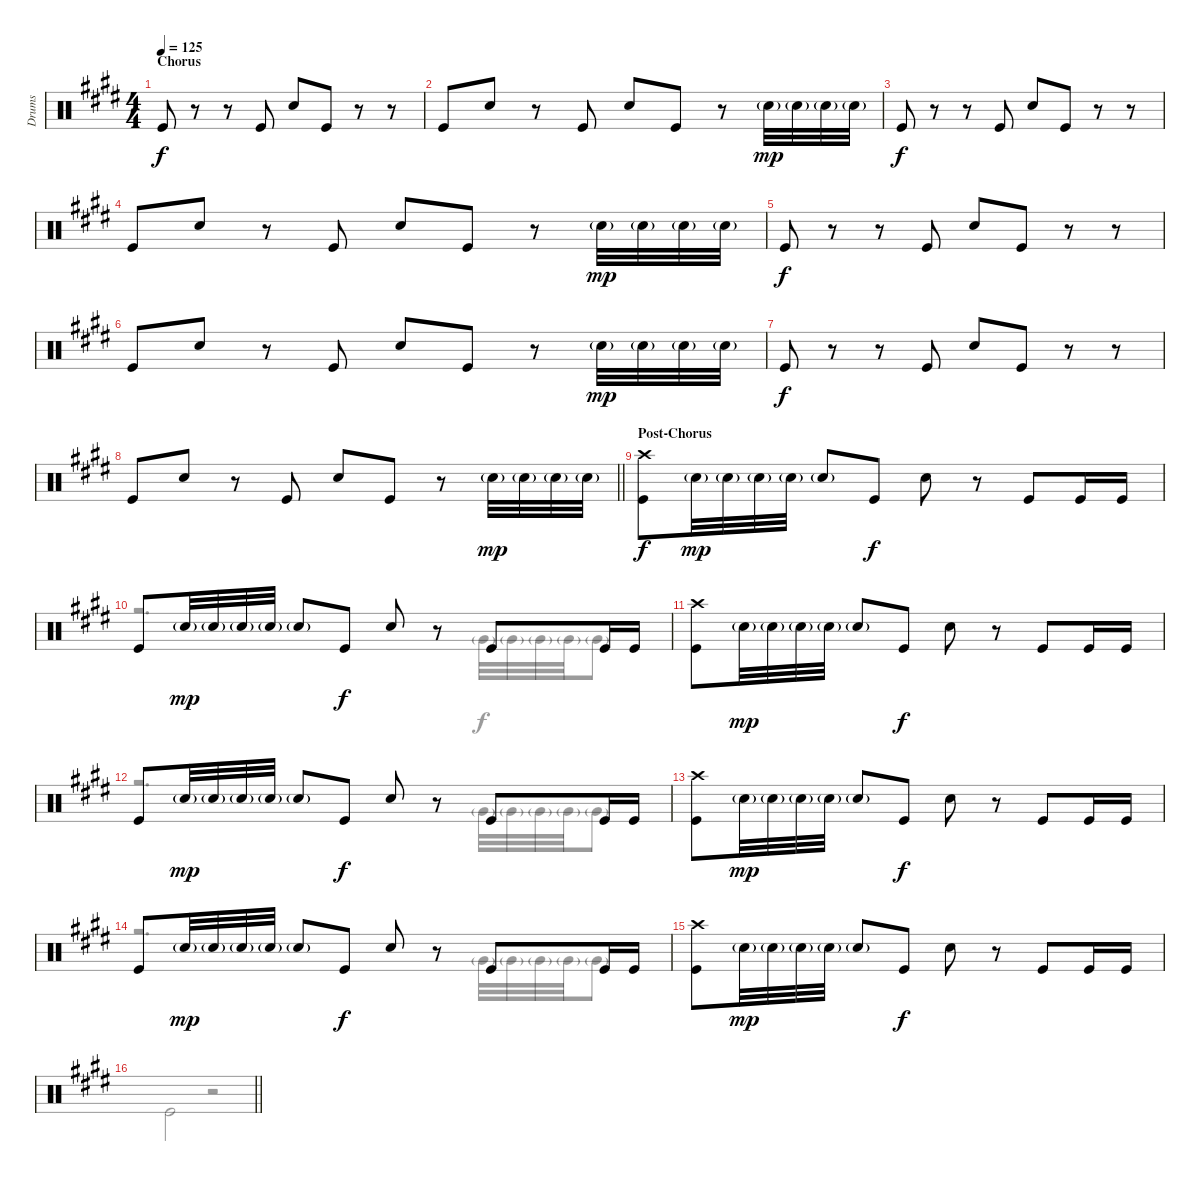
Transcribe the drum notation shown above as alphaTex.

\track ("Drums" "Drums") {instrument percussion}
\staff {score}
\articulation defaults
\voice
\ts (4 4)
\section ("" "Chorus")
\tempo 125
\clef neutral
\ks c#minor "Kick (hit)".8{dy f}
r.8 r.8 "Kick (hit)".8 "Electric Snare (hit)".8 "Kick (hit)".8 r.8 r.8 |
"Kick (hit)".8 "Electric Snare (hit)".8 r.8 "Kick (hit)".8 "Electric Snare (hit)".8 "Kick (hit)".8 r.8 "Electric Snare (hit)"{g}.32{dy mp} "Electric Snare (hit)"{g}.32 "Electric Snare (hit)"{g}.32 "Electric Snare (hit)"{g}.32 |
"Kick (hit)".8{dy f} r.8 r.8 "Kick (hit)".8 "Electric Snare (hit)".8 "Kick (hit)".8 r.8 r.8 |
"Kick (hit)".8 "Electric Snare (hit)".8 r.8 "Kick (hit)".8 "Electric Snare (hit)".8 "Kick (hit)".8 r.8 "Electric Snare (hit)"{g}.32{dy mp} "Electric Snare (hit)"{g}.32 "Electric Snare (hit)"{g}.32 "Electric Snare (hit)"{g}.32 |
"Kick (hit)".8{dy f} r.8 r.8 "Kick (hit)".8 "Electric Snare (hit)".8 "Kick (hit)".8 r.8 r.8 |
"Kick (hit)".8 "Electric Snare (hit)".8 r.8 "Kick (hit)".8 "Electric Snare (hit)".8 "Kick (hit)".8 r.8 "Electric Snare (hit)"{g}.32{dy mp} "Electric Snare (hit)"{g}.32 "Electric Snare (hit)"{g}.32 "Electric Snare (hit)"{g}.32 |
"Kick (hit)".8{dy f} r.8 r.8 "Kick (hit)".8 "Electric Snare (hit)".8 "Kick (hit)".8 r.8 r.8 |
\barLineRight lightlight "Kick (hit)".8 "Electric Snare (hit)".8
r.8 "Kick (hit)".8 "Electric Snare (hit)".8 "Kick (hit)".8 r.8 "Electric Snare (hit)"{g}.32{dy mp} "Electric Snare (hit)"{g}.32 "Electric Snare (hit)"{g}.32 "Electric Snare (hit)"{g}.32 |
\section ("" "Post-Chorus")
("Crash high (hit)" "Kick (hit)").8{dy f} "Electric Snare (hit)"{g}.32{dy mp} "Electric Snare (hit)"{g}.32 "Electric Snare (hit)"{g}.32 "Electric Snare (hit)"{g}.32 "Electric Snare (hit)"{g}.8 "Kick (hit)".8{dy f} "Electric Snare (hit)".8 r.8 "Kick (hit)".8 "Kick (hit)".16 "Kick (hit)".16 |
"Kick (hit)".8 "Electric Snare (hit)"{g}.32{dy mp} "Electric Snare (hit)"{g}.32 "Electric Snare (hit)"{g}.32 "Electric Snare (hit)"{g}.32 "Electric Snare (hit)"{g}.8 "Kick (hit)".8{dy f} "Electric Snare (hit)".8 r.8 "Kick (hit)".8 "Kick (hit)".16 "Kick (hit)".16 |
("Crash high (hit)" "Kick (hit)").8 "Electric Snare (hit)"{g}.32{dy mp} "Electric Snare (hit)"{g}.32 "Electric Snare (hit)"{g}.32 "Electric Snare (hit)"{g}.32 "Electric Snare (hit)"{g}.8 "Kick (hit)".8{dy f} "Electric Snare (hit)".8 r.8 "Kick (hit)".8 "Kick (hit)".16 "Kick (hit)".16 |
"Kick (hit)".8 "Electric Snare (hit)"{g}.32{dy mp} "Electric Snare (hit)"{g}.32 "Electric Snare (hit)"{g}.32 "Electric Snare (hit)"{g}.32 "Electric Snare (hit)"{g}.8 "Kick (hit)".8{dy f} "Electric Snare (hit)".8 r.8 "Kick (hit)".8 "Kick (hit)".16 "Kick (hit)".16 |
("Crash high (hit)" "Kick (hit)").8 "Electric Snare (hit)"{g}.32{dy mp} "Electric Snare (hit)"{g}.32 "Electric Snare (hit)"{g}.32 "Electric Snare (hit)"{g}.32 "Electric Snare (hit)"{g}.8 "Kick (hit)".8{dy f} "Electric Snare (hit)".8 r.8 "Kick (hit)".8 "Kick (hit)".16 "Kick (hit)".16 |
"Kick (hit)".8 "Electric Snare (hit)"{g}.32{dy mp} "Electric Snare (hit)"{g}.32 "Electric Snare (hit)"{g}.32 "Electric Snare (hit)"{g}.32 "Electric Snare (hit)"{g}.8 "Kick (hit)".8{dy f} "Electric Snare (hit)".8 r.8 "Kick (hit)".8 "Kick (hit)".16 "Kick (hit)".16 |
("Crash high (hit)" "Kick (hit)").8 "Electric Snare (hit)"{g}.32{dy mp} "Electric Snare (hit)"{g}.32 "Electric Snare (hit)"{g}.32 "Electric Snare (hit)"{g}.32 "Electric Snare (hit)"{g}.8 "Kick (hit)".8{dy f} "Electric Snare (hit)".8 r.8 "Kick (hit)".8 "Kick (hit)".16 "Kick (hit)".16 |
\barLineRight lightlight
\voice
\clef neutral
\ottava regular
\simile none
\ks c#minor
|
|
|
|
|
|
|
\barLineRight lightlight
|
|
r.2{d} "Very Low Tom (hit)"{g}.32 "Very Low Tom (hit)"{g}.32 "Very Low Tom (hit)"{g}.32 "Very Low Tom (hit)"{g}.32 "Very Low Tom (hit)"{g}.8 |
|
r.2{d} "Very Low Tom (hit)"{g}.32 "Very Low Tom (hit)"{g}.32 "Very Low Tom (hit)"{g}.32 "Very Low Tom (hit)"{g}.32 "Very Low Tom (hit)"{g}.8 |
|
r.2{d} "Very Low Tom (hit)"{g}.32 "Very Low Tom (hit)"{g}.32 "Very Low Tom (hit)"{g}.32 "Very Low Tom (hit)"{g}.32 "Very Low Tom (hit)"{g}.8 |
|
\barLineRight lightlight "Kick (hit)".2{dy f}
r.2
